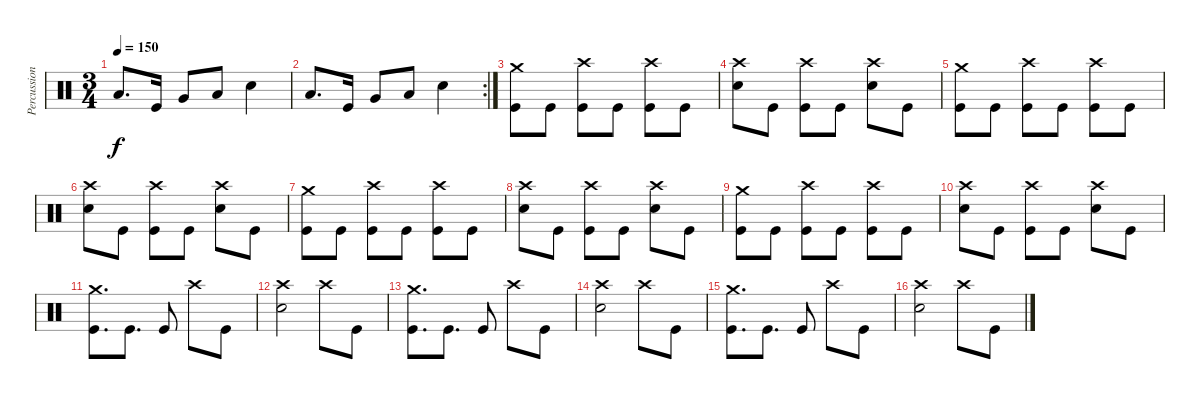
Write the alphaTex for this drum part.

\track ("Percussion" "Percussion") {instrument percussion}
\staff {score}
\articulation defaults
\ts (3 4)
\tempo 150
\clef neutral
\ks c "Low Tom (hit)".8{d dy f} "Kick (hit)".16 "Very Low Tom (hit)".8 "Low Floor Tom (hit)".8 "Snare (hit) 2".4
|
\rc 2 "Low Tom (hit)".8{d} "Kick (hit)".16 "Very Low Tom (hit)".8 "Low Floor Tom (hit)".8 "Snare (hit) 2".4
|
("Crash medium (hit)" "Kick (hit)").8 "Kick (hit)".8 ("Crash high (hit)" "Kick (hit)").8 "Kick (hit)".8 ("Crash high (hit)" "Kick (hit)").8 "Kick (hit)".8 |
("Crash high (hit)" "Snare (hit) 2").8 "Kick (hit)".8 ("Crash high (hit)" "Kick (hit)").8 "Kick (hit)".8 ("Crash high (hit)" "Snare (hit) 2").8 "Kick (hit)".8 |
("Crash medium (hit)" "Kick (hit)").8 "Kick (hit)".8 ("Crash high (hit)" "Kick (hit)").8 "Kick (hit)".8 ("Crash high (hit)" "Kick (hit)").8 "Kick (hit)".8 |
("Crash high (hit)" "Snare (hit) 2").8 "Kick (hit)".8 ("Crash high (hit)" "Kick (hit)").8 "Kick (hit)".8 ("Crash high (hit)" "Snare (hit) 2").8 "Kick (hit)".8 |
("Crash medium (hit)" "Kick (hit)").8 "Kick (hit)".8 ("Crash high (hit)" "Kick (hit)").8 "Kick (hit)".8 ("Crash high (hit)" "Kick (hit)").8 "Kick (hit)".8 |
("Crash high (hit)" "Snare (hit) 2").8 "Kick (hit)".8 ("Crash high (hit)" "Kick (hit)").8 "Kick (hit)".8 ("Crash high (hit)" "Snare (hit) 2").8 "Kick (hit)".8 |
("Crash medium (hit)" "Kick (hit)").8 "Kick (hit)".8 ("Crash high (hit)" "Kick (hit)").8 "Kick (hit)".8 ("Crash high (hit)" "Kick (hit)").8 "Kick (hit)".8 |
("Crash high (hit)" "Snare (hit) 2").8 "Kick (hit)".8 ("Crash high (hit)" "Kick (hit)").8 "Kick (hit)".8 ("Crash high (hit)" "Snare (hit) 2").8 "Kick (hit)".8 |
("Crash medium (hit)" "Kick (hit)").8{d} "Kick (hit)".8{d} "Kick (hit)".8 "Crash high (hit)".8 "Kick (hit)".8 |
("Crash high (hit)" "Snare (hit) 2").2 "Crash high (hit)".8 "Kick (hit)".8 |
("Crash medium (hit)" "Kick (hit)").8{d} "Kick (hit)".8{d} "Kick (hit)".8 "Crash high (hit)".8 "Kick (hit)".8 |
("Crash high (hit)" "Snare (hit) 2").2 "Crash high (hit)".8 "Kick (hit)".8 |
("Crash medium (hit)" "Kick (hit)").8{d} "Kick (hit)".8{d} "Kick (hit)".8 "Crash high (hit)".8 "Kick (hit)".8 |
("Crash high (hit)" "Snare (hit) 2").2 "Crash high (hit)".8 "Kick (hit)".8
